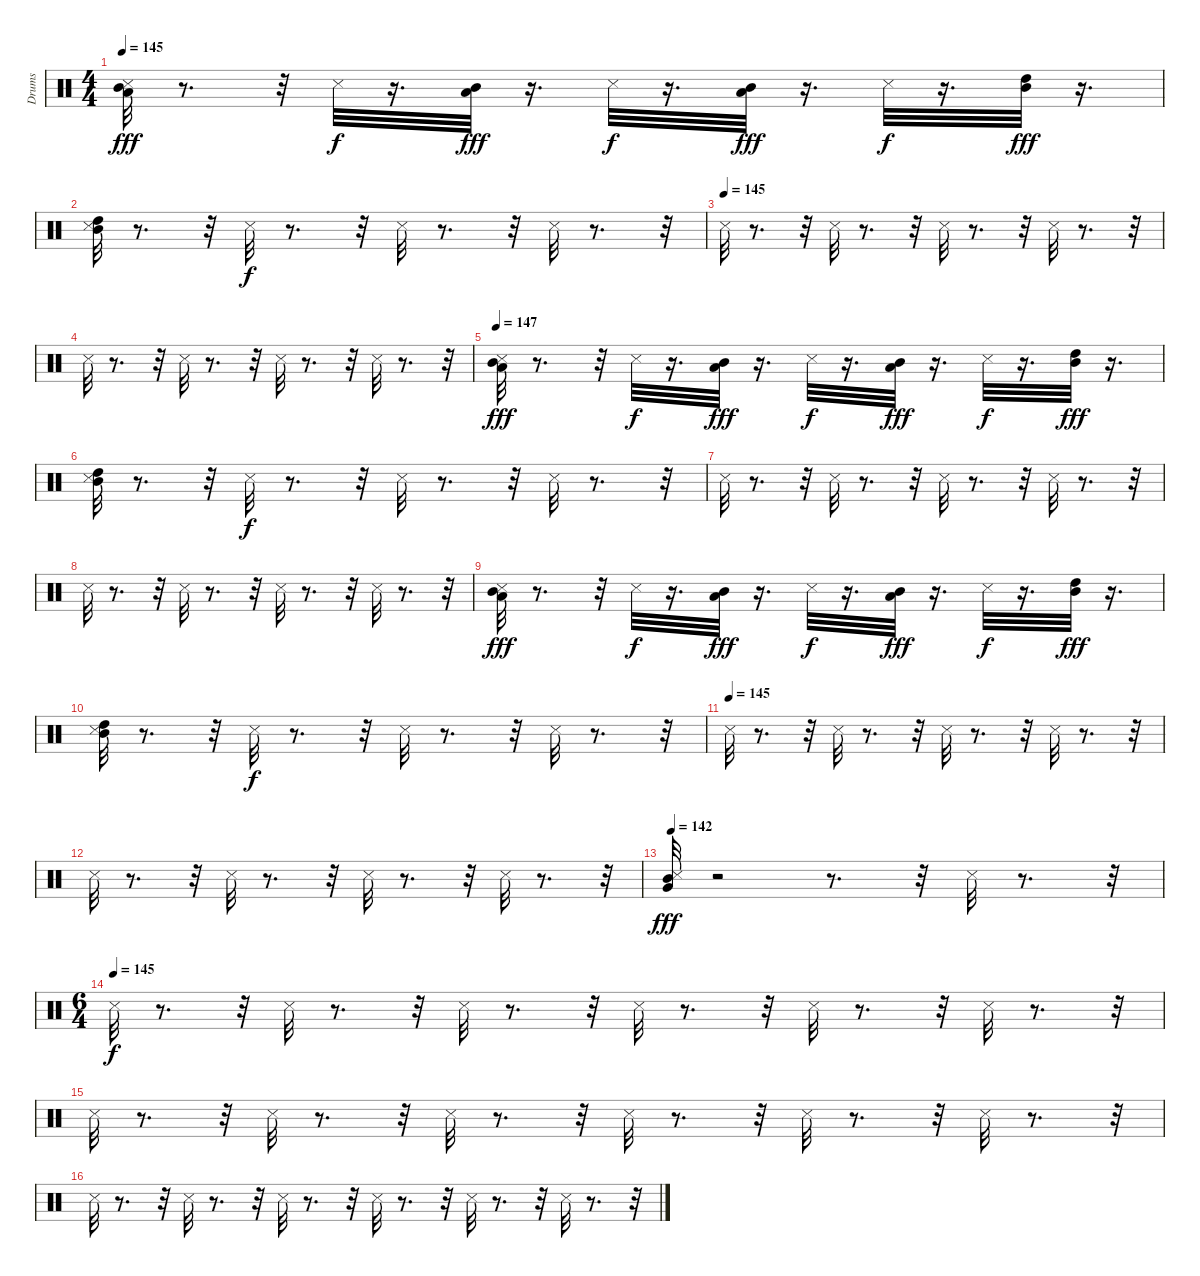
\track ("Drums" "Drums") {instrument percussion}
\staff {score}
\articulation defaults
\ts (4 4)
\tempo 145
\clef neutral
\ks c
("Metronome (hit)" "Low Tom (hit)" "Mid Tom (hit)").32{dy fff} r.8{d} r.32 "Metronome (hit)".32{dy f} r.16{d} ("Low Tom (hit)" "Mid Tom (hit)").32{dy fff} r.16{d} "Metronome (hit)".32{dy f} r.16{d} ("Low Tom (hit)" "Mid Tom (hit)").32{dy fff} r.16{d} "Metronome (hit)".32{dy f} r.16{d} ("Mid Tom (hit)" "High Tom (hit)").32{dy fff} r.16{d} |
("High Tom (hit)" "Mid Tom (hit)" "Metronome (hit)").32 r.8{d} r.32 "Metronome (hit)".32{dy f} r.8{d} r.32 "Metronome (hit)".32 r.8{d} r.32 "Metronome (hit)".32 r.8{d} r.32 |
\tempo (145)
"Metronome (hit)".32 r.8{d} r.32 "Metronome (hit)".32 r.8{d} r.32 "Metronome (hit)".32 r.8{d} r.32 "Metronome (hit)".32 r.8{d} r.32 |
"Metronome (hit)".32 r.8{d} r.32 "Metronome (hit)".32 r.8{d} r.32 "Metronome (hit)".32 r.8{d} r.32 "Metronome (hit)".32 r.8{d} r.32 |
\tempo 147
("Metronome (hit)" "Low Tom (hit)" "Mid Tom (hit)").32{dy fff} r.8{d} r.32 "Metronome (hit)".32{dy f} r.16{d} ("Low Tom (hit)" "Mid Tom (hit)").32{dy fff} r.16{d} "Metronome (hit)".32{dy f} r.16{d} ("Low Tom (hit)" "Mid Tom (hit)").32{dy fff} r.16{d} "Metronome (hit)".32{dy f} r.16{d} ("Mid Tom (hit)" "High Tom (hit)").32{dy fff} r.16{d} |
("High Tom (hit)" "Mid Tom (hit)" "Metronome (hit)").32 r.8{d} r.32 "Metronome (hit)".32{dy f} r.8{d} r.32 "Metronome (hit)".32 r.8{d} r.32 "Metronome (hit)".32 r.8{d} r.32 |
"Metronome (hit)".32 r.8{d} r.32 "Metronome (hit)".32 r.8{d} r.32 "Metronome (hit)".32 r.8{d} r.32 "Metronome (hit)".32 r.8{d} r.32 |
"Metronome (hit)".32 r.8{d} r.32 "Metronome (hit)".32 r.8{d} r.32 "Metronome (hit)".32 r.8{d} r.32 "Metronome (hit)".32 r.8{d} r.32 |
("Metronome (hit)" "Low Tom (hit)" "Mid Tom (hit)").32{dy fff} r.8{d} r.32 "Metronome (hit)".32{dy f} r.16{d} ("Low Tom (hit)" "Mid Tom (hit)").32{dy fff} r.16{d} "Metronome (hit)".32{dy f} r.16{d} ("Low Tom (hit)" "Mid Tom (hit)").32{dy fff} r.16{d} "Metronome (hit)".32{dy f} r.16{d} ("Mid Tom (hit)" "High Tom (hit)").32{dy fff} r.16{d} |
("High Tom (hit)" "Mid Tom (hit)" "Metronome (hit)").32 r.8{d} r.32 "Metronome (hit)".32{dy f} r.8{d} r.32 "Metronome (hit)".32 r.8{d} r.32 "Metronome (hit)".32 r.8{d} r.32 |
\tempo (145)
"Metronome (hit)".32 r.8{d} r.32 "Metronome (hit)".32 r.8{d} r.32 "Metronome (hit)".32 r.8{d} r.32 "Metronome (hit)".32 r.8{d} r.32 |
"Metronome (hit)".32 r.8{d} r.32 "Metronome (hit)".32 r.8{d} r.32 "Metronome (hit)".32 r.8{d} r.32 "Metronome (hit)".32 r.8{d} r.32 |
\tempo 142
("Mid Tom (hit)" "Very Low Tom (hit)" "Metronome (hit)").32{dy fff} r.2 r.8{d} r.32 "Metronome (hit)".32 r.8{d} r.32 |
\ts (6 4)
\tempo (145)
"Metronome (hit)".32{dy f} r.8{d} r.32 "Metronome (hit)".32 r.8{d} r.32 "Metronome (hit)".32 r.8{d} r.32 "Metronome (hit)".32 r.8{d} r.32 "Metronome (hit)".32 r.8{d} r.32 "Metronome (hit)".32 r.8{d} r.32 |
"Metronome (hit)".32 r.8{d} r.32 "Metronome (hit)".32 r.8{d} r.32 "Metronome (hit)".32 r.8{d} r.32 "Metronome (hit)".32 r.8{d} r.32 "Metronome (hit)".32 r.8{d} r.32 "Metronome (hit)".32 r.8{d} r.32 |
"Metronome (hit)".32 r.8{d} r.32 "Metronome (hit)".32 r.8{d} r.32 "Metronome (hit)".32 r.8{d} r.32 "Metronome (hit)".32 r.8{d} r.32 "Metronome (hit)".32 r.8{d} r.32 "Metronome (hit)".32 r.8{d} r.32
